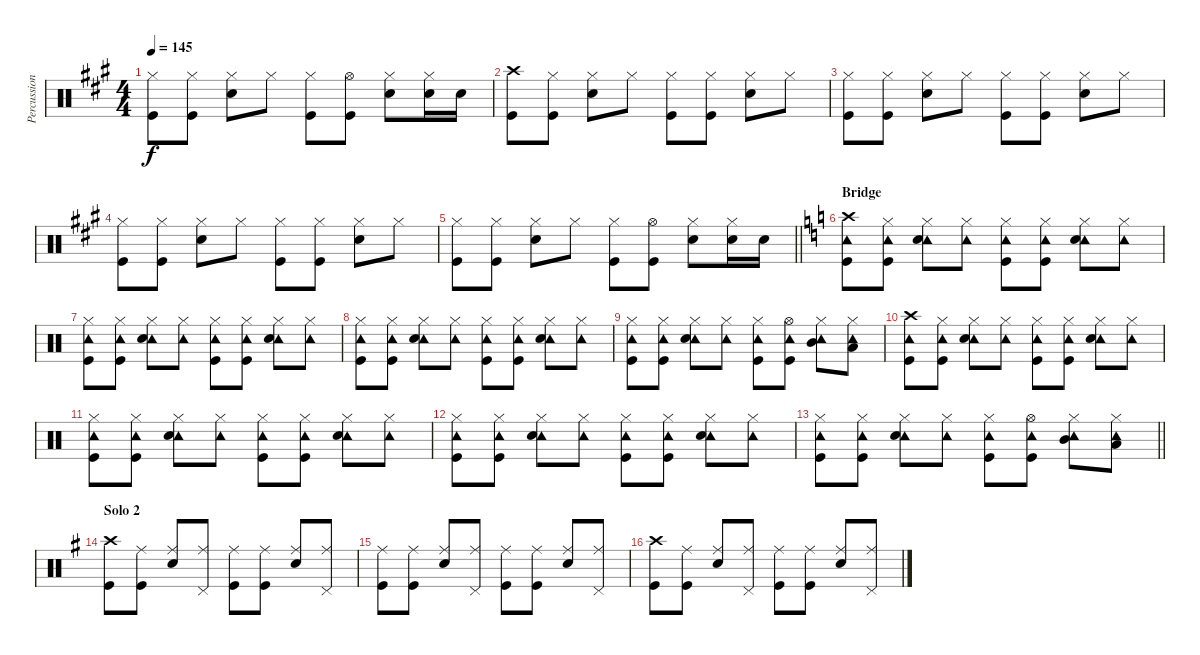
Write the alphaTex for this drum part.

\track ("Percussion" "Percussion") {instrument percussion}
\staff {score}
\articulation defaults
\ts (4 4)
\tempo 145
\clef neutral
\ks a
("Hi-Hat (closed)" "Kick (hit)").8{dy f} ("Hi-Hat (closed)" "Kick (hit)").8 ("Hi-Hat (closed)" "Snare (hit) 2").8 "Hi-Hat (closed)".8 ("Hi-Hat (closed)" "Kick (hit)").8 ("Hi-Hat (open)" "Kick (hit)").8 ("Hi-Hat (closed)" "Snare (hit) 2").8 ("Hi-Hat (closed)" "Snare (hit) 2").16 "Snare (hit) 2".16 |
("Crash high (hit)" "Kick (hit)").8 ("Hi-Hat (closed)" "Kick (hit)").8 ("Hi-Hat (closed)" "Snare (hit) 2").8 "Hi-Hat (closed)".8 ("Hi-Hat (closed)" "Kick (hit)").8 ("Hi-Hat (closed)" "Kick (hit)").8 ("Hi-Hat (closed)" "Snare (hit) 2").8 "Hi-Hat (closed)".8 |
("Hi-Hat (closed)" "Kick (hit)").8 ("Hi-Hat (closed)" "Kick (hit)").8 ("Hi-Hat (closed)" "Snare (hit) 2").8 "Hi-Hat (closed)".8 ("Hi-Hat (closed)" "Kick (hit)").8 ("Hi-Hat (closed)" "Kick (hit)").8 ("Hi-Hat (closed)" "Snare (hit) 2").8 "Hi-Hat (closed)".8 |
("Hi-Hat (closed)" "Kick (hit)").8 ("Hi-Hat (closed)" "Kick (hit)").8 ("Hi-Hat (closed)" "Snare (hit) 2").8 "Hi-Hat (closed)".8 ("Hi-Hat (closed)" "Kick (hit)").8 ("Hi-Hat (closed)" "Kick (hit)").8 ("Hi-Hat (closed)" "Snare (hit) 2").8 "Hi-Hat (closed)".8 |
\barLineRight lightlight
("Hi-Hat (closed)" "Kick (hit)").8 ("Hi-Hat (closed)" "Kick (hit)").8 ("Hi-Hat (closed)" "Snare (hit) 2").8 "Hi-Hat (closed)".8 ("Hi-Hat (closed)" "Kick (hit)").8 ("Hi-Hat (open)" "Kick (hit)").8 ("Hi-Hat (closed)" "Snare (hit) 2").8 ("Hi-Hat (closed)" "Snare (hit) 2").16 "Snare (hit) 2".16 |
\section ("" "Bridge")
\ks c
("Crash high (hit)" "Tambourine (hit)" "Kick (hit)").8 ("Hi-Hat (closed)" "Tambourine (hit)" "Kick (hit)").8 ("Hi-Hat (closed)" "Tambourine (hit)" "Snare (hit) 2").8 ("Hi-Hat (closed)" "Tambourine (hit)").8 ("Hi-Hat (closed)" "Tambourine (hit)" "Kick (hit)").8 ("Hi-Hat (closed)" "Tambourine (hit)" "Kick (hit)").8 ("Hi-Hat (closed)" "Tambourine (hit)" "Snare (hit) 2").8 ("Hi-Hat (closed)" "Tambourine (hit)").8 |
("Hi-Hat (closed)" "Tambourine (hit)" "Kick (hit)").8 ("Hi-Hat (closed)" "Tambourine (hit)" "Kick (hit)").8 ("Hi-Hat (closed)" "Tambourine (hit)" "Snare (hit) 2").8 ("Hi-Hat (closed)" "Tambourine (hit)").8 ("Hi-Hat (closed)" "Tambourine (hit)" "Kick (hit)").8 ("Hi-Hat (closed)" "Tambourine (hit)" "Kick (hit)").8 ("Hi-Hat (closed)" "Tambourine (hit)" "Snare (hit) 2").8 ("Hi-Hat (closed)" "Tambourine (hit)").8 |
("Hi-Hat (closed)" "Tambourine (hit)" "Kick (hit)").8 ("Hi-Hat (closed)" "Tambourine (hit)" "Kick (hit)").8 ("Hi-Hat (closed)" "Tambourine (hit)" "Snare (hit) 2").8 ("Hi-Hat (closed)" "Tambourine (hit)").8 ("Hi-Hat (closed)" "Tambourine (hit)" "Kick (hit)").8 ("Hi-Hat (closed)" "Tambourine (hit)" "Kick (hit)").8 ("Hi-Hat (closed)" "Tambourine (hit)" "Snare (hit) 2").8 ("Hi-Hat (closed)" "Tambourine (hit)").8 |
("Hi-Hat (closed)" "Tambourine (hit)" "Kick (hit)").8 ("Hi-Hat (closed)" "Tambourine (hit)" "Kick (hit)").8 ("Hi-Hat (closed)" "Tambourine (hit)" "Snare (hit) 2").8 ("Hi-Hat (closed)" "Tambourine (hit)").8 ("Hi-Hat (closed)" "Tambourine (hit)" "Kick (hit)").8 ("Hi-Hat (open)" "Tambourine (hit)" "Kick (hit)").8 ("Hi-Hat (closed)" "Tambourine (hit)" "Mid Tom (hit)").8 ("Hi-Hat (closed)" "Tambourine (hit)" "Low Tom (hit)").8 |
("Crash high (hit)" "Tambourine (hit)" "Kick (hit)").8 ("Hi-Hat (closed)" "Tambourine (hit)" "Kick (hit)").8 ("Hi-Hat (closed)" "Tambourine (hit)" "Snare (hit) 2").8 ("Hi-Hat (closed)" "Tambourine (hit)").8 ("Hi-Hat (closed)" "Tambourine (hit)" "Kick (hit)").8 ("Hi-Hat (closed)" "Tambourine (hit)" "Kick (hit)").8 ("Hi-Hat (closed)" "Tambourine (hit)" "Snare (hit) 2").8 ("Hi-Hat (closed)" "Tambourine (hit)").8 |
("Hi-Hat (closed)" "Tambourine (hit)" "Kick (hit)").8 ("Hi-Hat (closed)" "Tambourine (hit)" "Kick (hit)").8 ("Hi-Hat (closed)" "Tambourine (hit)" "Snare (hit) 2").8 ("Hi-Hat (closed)" "Tambourine (hit)").8 ("Hi-Hat (closed)" "Tambourine (hit)" "Kick (hit)").8 ("Hi-Hat (closed)" "Tambourine (hit)" "Kick (hit)").8 ("Hi-Hat (closed)" "Tambourine (hit)" "Snare (hit) 2").8 ("Hi-Hat (closed)" "Tambourine (hit)").8 |
("Hi-Hat (closed)" "Tambourine (hit)" "Kick (hit)").8 ("Hi-Hat (closed)" "Tambourine (hit)" "Kick (hit)").8 ("Hi-Hat (closed)" "Tambourine (hit)" "Snare (hit) 2").8 ("Hi-Hat (closed)" "Tambourine (hit)").8 ("Hi-Hat (closed)" "Tambourine (hit)" "Kick (hit)").8 ("Hi-Hat (closed)" "Tambourine (hit)" "Kick (hit)").8 ("Hi-Hat (closed)" "Tambourine (hit)" "Snare (hit) 2").8 ("Hi-Hat (closed)" "Tambourine (hit)").8 |
\barLineRight lightlight
("Hi-Hat (closed)" "Tambourine (hit)" "Kick (hit)").8 ("Hi-Hat (closed)" "Tambourine (hit)" "Kick (hit)").8 ("Hi-Hat (closed)" "Tambourine (hit)" "Snare (hit) 2").8 ("Hi-Hat (closed)" "Tambourine (hit)").8 ("Hi-Hat (closed)" "Tambourine (hit)" "Kick (hit)").8 ("Hi-Hat (open)" "Tambourine (hit)" "Kick (hit)").8 ("Hi-Hat (closed)" "Tambourine (hit)" "Mid Tom (hit)").8 ("Hi-Hat (closed)" "Tambourine (hit)" "Low Tom (hit)").8 |
\section ("" "Solo 2")
\ks eminor
("Crash high (hit)" "Kick (hit)").8 ("Ride (middle)" "Kick (hit)").8 ("Ride (middle)" "Snare (hit) 2").8 ("Ride (middle)" "Pedal Hi-Hat (hit)").8 ("Ride (middle)" "Kick (hit)").8 ("Ride (middle)" "Kick (hit)").8 ("Ride (middle)" "Snare (hit) 2").8 ("Ride (middle)" "Pedal Hi-Hat (hit)").8 |
("Ride (middle)" "Kick (hit)").8 ("Ride (middle)" "Kick (hit)").8 ("Ride (middle)" "Snare (hit) 2").8 ("Ride (middle)" "Pedal Hi-Hat (hit)").8 ("Ride (middle)" "Kick (hit)").8 ("Ride (middle)" "Kick (hit)").8 ("Ride (middle)" "Snare (hit) 2").8 ("Ride (middle)" "Pedal Hi-Hat (hit)").8 |
("Crash high (hit)" "Kick (hit)").8 ("Ride (middle)" "Kick (hit)").8 ("Ride (middle)" "Snare (hit) 2").8 ("Ride (middle)" "Pedal Hi-Hat (hit)").8 ("Ride (middle)" "Kick (hit)").8 ("Ride (middle)" "Kick (hit)").8 ("Ride (middle)" "Snare (hit) 2").8 ("Ride (middle)" "Pedal Hi-Hat (hit)").8
